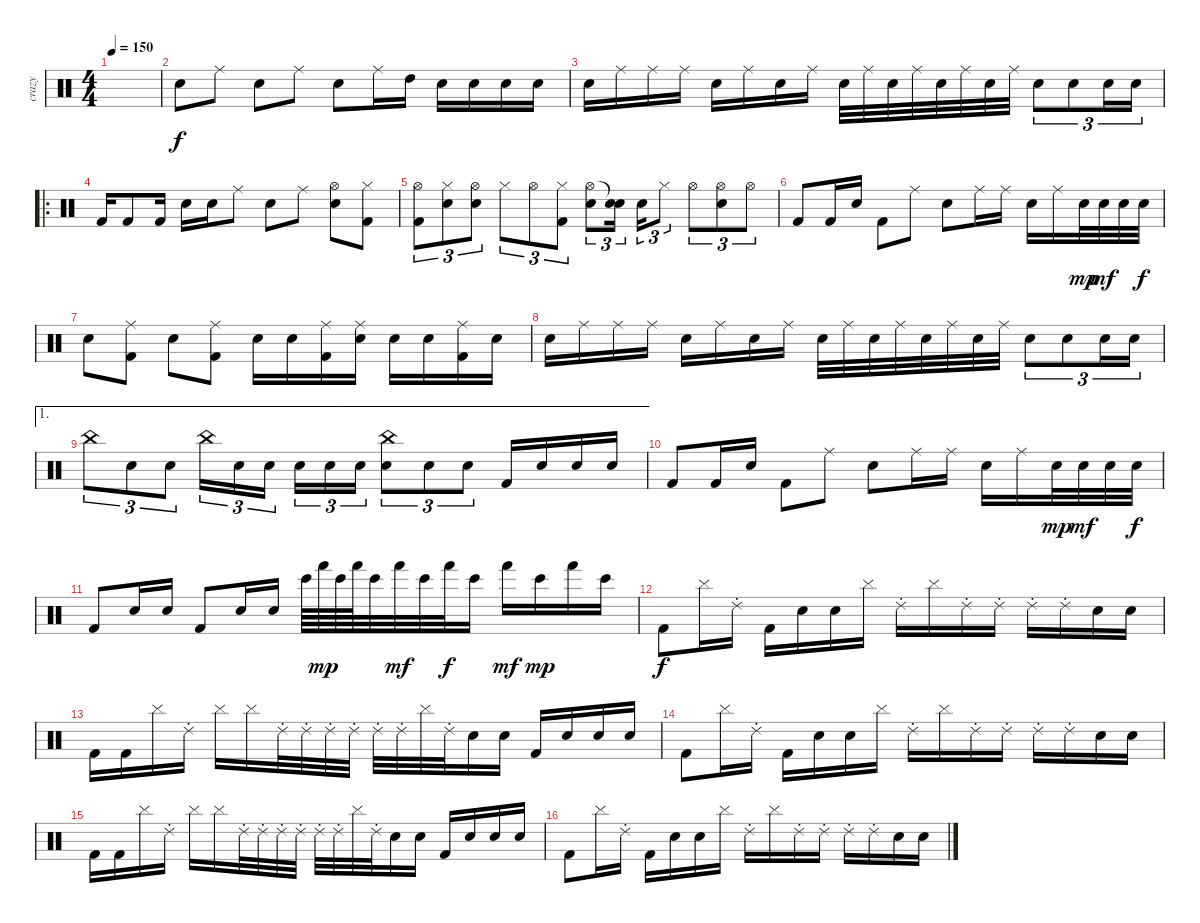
\track ("crazy" "crazy") {instrument percussion}
\staff {score}
\articulation defaults
\ts (4 4)
\tempo 150
\clef neutral
\ks c
|
"Electric Snare (hit)".8 "Ride (middle)".8 "Electric Snare (hit)".8 "Ride (middle)".8 "Electric Snare (hit)".8 "Ride (middle)".16 "High Tom (hit)".16 "Electric Snare (hit)".16 "Electric Snare (hit)".16 "Electric Snare (hit)".16 "Electric Snare (hit)".16 |
"Electric Snare (hit)".16 "Ride (middle)".16 "Ride (middle)".16 "Ride (middle)".16 "Electric Snare (hit)".16 "Ride (middle)".16 "Electric Snare (hit)".16 "Ride (middle)".16 "Electric Snare (hit)".32 "Ride (middle)".32 "Electric Snare (hit)".32 "Ride (middle)".32 "Electric Snare (hit)".32 "Ride (middle)".32 "Electric Snare (hit)".32 "Ride (middle)".32 "Electric Snare (hit)".8{tu (3 2)} "Electric Snare (hit)".8{tu (3 2)} "Electric Snare (hit)".16{tu (3 2)} "Electric Snare (hit)".16{tu (3 2)} |
\ro "Kick (hit) 2".16 "Kick (hit) 2".8 "Kick (hit) 2".16 "Electric Snare (hit)".16 "Electric Snare (hit)".16 "Ride (middle)".8 "Electric Snare (hit)".8 "Ride (middle)".8
("Hi-Hat (open)" "Electric Snare (hit)").8 ("Hi-Hat (closed)" "Kick (hit) 2").8 |
("Hi-Hat (open)" "Kick (hit) 2").8{tu (3 2)} ("Hi-Hat (closed)" "Electric Snare (hit)").8{tu (3 2)} ("Hi-Hat (open)" "Electric Snare (hit)").8{tu (3 2)} "Hi-Hat (closed)".8{tu (3 2)} "Hi-Hat (open)".8{tu (3 2)} ("Hi-Hat (closed)" "Kick (hit) 2").8{tu (3 2)} ("Hi-Hat (open)" "Electric Snare (hit)").8{tu (3 2)} ("Snare (hit)"{t} "Electric Snare (hit)").16{tu (3 2)} "Electric Snare (hit)".16{tu (3 2)} "Hi-Hat (closed)".8{tu (3 2)} "Hi-Hat (open)".8{tu (3 2)} ("Hi-Hat (open)" "Electric Snare (hit)").8{tu (3 2)} "Hi-Hat (open)".8{tu (3 2)} |
"Kick (hit) 2".8 "Kick (hit) 2".16 "Electric Snare (hit)".16 "Kick (hit) 2".8 "Ride (middle)".8 "Electric Snare (hit)".8 "Ride (middle)".16 "Ride (middle)".16 "Electric Snare (hit)".16 "Ride (middle)".16 "Electric Snare (hit)".32{dy mp} "Electric Snare (hit)".32{dy mf} "Electric Snare (hit)".32 "Electric Snare (hit)".32{dy f} |
"Electric Snare (hit)".8 ("Ride (middle)" "Kick (hit) 2").8 "Electric Snare (hit)".8 ("Ride (middle)" "Kick (hit) 2").8 "Electric Snare (hit)".16 "Electric Snare (hit)".16 ("Ride (middle)" "Kick (hit) 2").16 ("Ride (middle)" "Electric Snare (hit)").16 "Electric Snare (hit)".16 "Electric Snare (hit)".16 ("Ride (middle)" "Kick (hit) 2").16 "Electric Snare (hit)".16 |
"Electric Snare (hit)".16 "Ride (middle)".16 "Ride (middle)".16 "Ride (middle)".16 "Electric Snare (hit)".16 "Ride (middle)".16 "Electric Snare (hit)".16 "Ride (middle)".16 "Electric Snare (hit)".32 "Ride (middle)".32 "Electric Snare (hit)".32 "Ride (middle)".32 "Electric Snare (hit)".32 "Ride (middle)".32 "Electric Snare (hit)".32 "Ride (middle)".32 "Electric Snare (hit)".8{tu (3 2)} "Electric Snare (hit)".8{tu (3 2)} "Electric Snare (hit)".16{tu (3 2)} "Electric Snare (hit)".16{tu (3 2)} |
\ae 1 "China (hit)".8{tu (3 2)} "Electric Snare (hit)".8{tu (3 2)} "Electric Snare (hit)".8{tu (3 2)} "China (hit)".16{tu (3 2)} "Electric Snare (hit)".16{tu (3 2)} "Electric Snare (hit)".16{tu (3 2)} "Electric Snare (hit)".16{tu (3 2)} "Electric Snare (hit)".16{tu (3 2)} "Electric Snare (hit)".16{tu (3 2)}
("China (hit)" "Electric Snare (hit)").8{tu (3 2)} "Electric Snare (hit)".8{tu (3 2)} "Electric Snare (hit)".8{tu (3 2)} "Kick (hit) 2".16 "Electric Snare (hit)".16 "Electric Snare (hit)".16 "Electric Snare (hit)".16 |
"Kick (hit) 2".8 "Kick (hit) 2".16 "Electric Snare (hit)".16 "Kick (hit) 2".8 "Ride (middle)".8 "Electric Snare (hit)".8 "Ride (middle)".16 "Ride (middle)".16 "Electric Snare (hit)".16 "Ride (middle)".16 "Electric Snare (hit)".32{dy mp} "Electric Snare (hit)".32{dy mf} "Electric Snare (hit)".32 "Electric Snare (hit)".32{dy f} |
"Kick (hit) 2".8 "Electric Snare (hit)".16 "Electric Snare (hit)".16 "Kick (hit) 2".8 "Electric Snare (hit)".16 "Electric Snare (hit)".16 "Bongo High (hit)".64 "Hand (hit)".64{dy mp} "Bongo High (hit)".64 "Hand (hit)".64 "Bongo High (hit)".32 "Hand (hit)".32{dy mf} "Bongo High (hit)".32 "Hand (hit)".32{dy f} "Bongo High (hit)".16 "Hand (hit)".16{dy mf} "Bongo High (hit)".16{dy mp} "Hand (hit)".16 "Bongo High (hit)".16 |
"Kick (hit) 2".8{dy f} "Cymbal (hit)".16 "Ride (choke) 2".16 "Kick (hit) 2".16 "Electric Snare (hit)".16 "Electric Snare (hit)".16 "Cymbal (hit)".16 "Ride (choke) 2".16 "Cymbal (hit)".16 "Ride (choke) 2".16 "Ride (choke) 2".16 "Ride (choke) 2".16 "Ride (choke) 2".16 "Electric Snare (hit)".16 "Electric Snare (hit)".16 |
"Kick (hit) 2".16 "Kick (hit) 2".16 "Cymbal (hit)".16 "Ride (choke) 2".16 "Cymbal (hit)".16 "Cymbal (hit)".16 "Ride (choke) 2".32 "Ride (choke) 2".32 "Ride (choke) 2".32 "Ride (choke) 2".32 "Ride (choke) 2".32 "Ride (choke) 2".32 "Cymbal (hit)".32 "Ride (choke) 2".32 "Electric Snare (hit)".16 "Electric Snare (hit)".16 "Kick (hit) 2".16 "Electric Snare (hit)".16 "Electric Snare (hit)".16 "Electric Snare (hit)".16 |
"Kick (hit) 2".8 "Cymbal (hit)".16 "Ride (choke) 2".16 "Kick (hit) 2".16 "Electric Snare (hit)".16 "Electric Snare (hit)".16 "Cymbal (hit)".16 "Ride (choke) 2".16 "Cymbal (hit)".16 "Ride (choke) 2".16 "Ride (choke) 2".16 "Ride (choke) 2".16 "Ride (choke) 2".16 "Electric Snare (hit)".16 "Electric Snare (hit)".16 |
"Kick (hit) 2".16 "Kick (hit) 2".16 "Cymbal (hit)".16 "Ride (choke) 2".16 "Cymbal (hit)".16 "Cymbal (hit)".16 "Ride (choke) 2".32 "Ride (choke) 2".32 "Ride (choke) 2".32 "Ride (choke) 2".32 "Ride (choke) 2".32 "Ride (choke) 2".32 "Cymbal (hit)".32 "Ride (choke) 2".32 "Electric Snare (hit)".16 "Electric Snare (hit)".16 "Kick (hit) 2".16 "Electric Snare (hit)".16 "Electric Snare (hit)".16 "Electric Snare (hit)".16 |
"Kick (hit) 2".8 "Cymbal (hit)".16 "Ride (choke) 2".16 "Kick (hit) 2".16 "Electric Snare (hit)".16 "Electric Snare (hit)".16 "Cymbal (hit)".16 "Ride (choke) 2".16 "Cymbal (hit)".16 "Ride (choke) 2".16 "Ride (choke) 2".16 "Ride (choke) 2".16 "Ride (choke) 2".16 "Electric Snare (hit)".16 "Electric Snare (hit)".16
